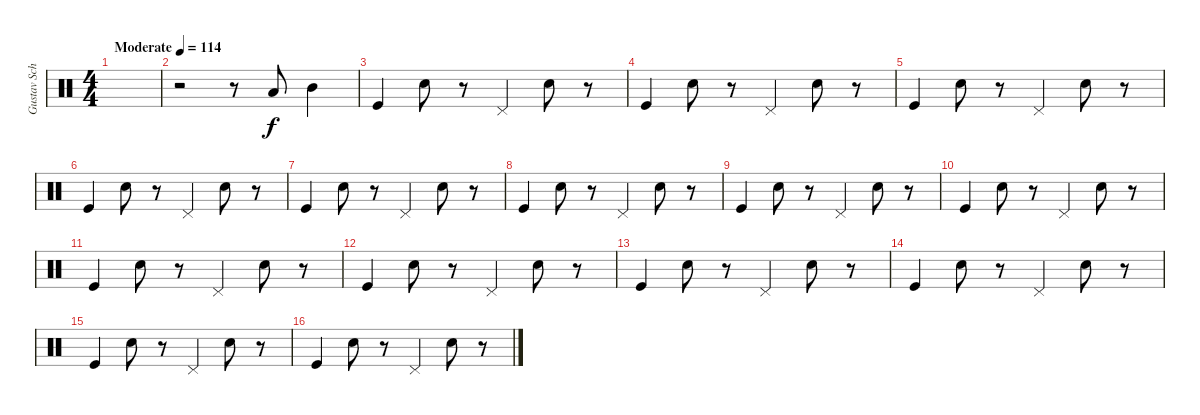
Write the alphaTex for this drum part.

\track ("Gustav Schäfer" "Gustav Sch") {instrument percussion}
\staff {score}
\articulation defaults
\ts (4 4)
\tempo (114 "Moderate")
\clef neutral
\ks c
|
r.2 r.8 "Low Tom (hit)".8 "Mid Tom (hit)".4 |
"Kick (hit)".4 "Electric Snare (hit)".8 r.8 "Pedal Hi-Hat (hit)".4 "Electric Snare (hit)".8 r.8 |
"Kick (hit)".4 "Electric Snare (hit)".8 r.8 "Pedal Hi-Hat (hit)".4 "Electric Snare (hit)".8 r.8 |
"Kick (hit)".4 "Electric Snare (hit)".8 r.8 "Pedal Hi-Hat (hit)".4 "Electric Snare (hit)".8 r.8 |
"Kick (hit)".4 "Electric Snare (hit)".8 r.8 "Pedal Hi-Hat (hit)".4 "Electric Snare (hit)".8 r.8 |
"Kick (hit)".4 "Electric Snare (hit)".8 r.8 "Pedal Hi-Hat (hit)".4 "Electric Snare (hit)".8 r.8 |
"Kick (hit)".4 "Electric Snare (hit)".8 r.8 "Pedal Hi-Hat (hit)".4 "Electric Snare (hit)".8 r.8 |
"Kick (hit)".4 "Electric Snare (hit)".8 r.8 "Pedal Hi-Hat (hit)".4 "Electric Snare (hit)".8 r.8 |
"Kick (hit)".4 "Electric Snare (hit)".8 r.8 "Pedal Hi-Hat (hit)".4 "Electric Snare (hit)".8 r.8 |
"Kick (hit)".4 "Electric Snare (hit)".8 r.8 "Pedal Hi-Hat (hit)".4 "Electric Snare (hit)".8 r.8 |
"Kick (hit)".4 "Electric Snare (hit)".8 r.8 "Pedal Hi-Hat (hit)".4 "Electric Snare (hit)".8 r.8 |
"Kick (hit)".4 "Electric Snare (hit)".8 r.8 "Pedal Hi-Hat (hit)".4 "Electric Snare (hit)".8 r.8 |
"Kick (hit)".4 "Electric Snare (hit)".8 r.8 "Pedal Hi-Hat (hit)".4 "Electric Snare (hit)".8 r.8 |
"Kick (hit)".4 "Electric Snare (hit)".8 r.8 "Pedal Hi-Hat (hit)".4 "Electric Snare (hit)".8 r.8 |
"Kick (hit)".4 "Electric Snare (hit)".8 r.8 "Pedal Hi-Hat (hit)".4 "Electric Snare (hit)".8 r.8
